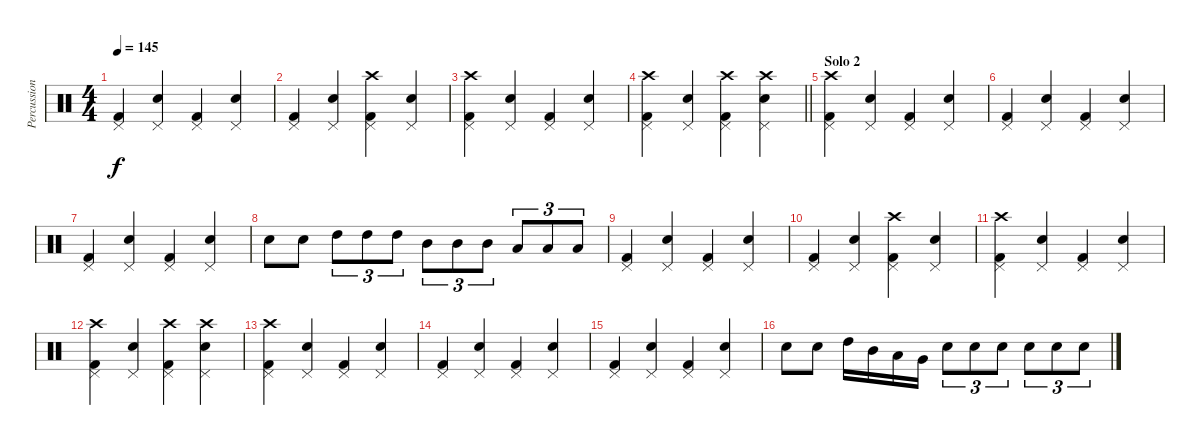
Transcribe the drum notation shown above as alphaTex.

\track ("Percussion" "Percussion") {instrument percussion}
\staff {score}
\articulation defaults
\ts (4 4)
\tempo 145
\clef neutral
\ks c
("Pedal Hi-Hat (hit)" "Kick (hit) 2").4{dy f} ("Pedal Hi-Hat (hit)" "Snare (hit) 2").4 ("Pedal Hi-Hat (hit)" "Kick (hit) 2").4 ("Pedal Hi-Hat (hit)" "Snare (hit) 2").4 |
("Pedal Hi-Hat (hit)" "Kick (hit) 2").4 ("Pedal Hi-Hat (hit)" "Snare (hit) 2").4 ("Pedal Hi-Hat (hit)" "Kick (hit) 2" "Crash high (hit)").4 ("Pedal Hi-Hat (hit)" "Snare (hit) 2").4 |
("Pedal Hi-Hat (hit)" "Kick (hit) 2" "Crash high (hit)").4 ("Pedal Hi-Hat (hit)" "Snare (hit) 2").4 ("Pedal Hi-Hat (hit)" "Kick (hit) 2").4 ("Pedal Hi-Hat (hit)" "Snare (hit) 2").4 |
\barLineRight lightlight
("Pedal Hi-Hat (hit)" "Kick (hit) 2" "Crash high (hit)").4 ("Pedal Hi-Hat (hit)" "Snare (hit) 2").4 ("Pedal Hi-Hat (hit)" "Kick (hit) 2" "Crash high (hit)").4 ("Pedal Hi-Hat (hit)" "Snare (hit) 2" "Crash high (hit)").4 |
\section ("" "Solo 2")
("Pedal Hi-Hat (hit)" "Kick (hit) 2" "Crash high (hit)").4 ("Pedal Hi-Hat (hit)" "Snare (hit) 2").4 ("Pedal Hi-Hat (hit)" "Kick (hit) 2").4 ("Pedal Hi-Hat (hit)" "Snare (hit) 2").4 |
("Pedal Hi-Hat (hit)" "Kick (hit) 2").4 ("Pedal Hi-Hat (hit)" "Snare (hit) 2").4 ("Pedal Hi-Hat (hit)" "Kick (hit) 2").4 ("Pedal Hi-Hat (hit)" "Snare (hit) 2").4 |
("Pedal Hi-Hat (hit)" "Kick (hit) 2").4 ("Pedal Hi-Hat (hit)" "Snare (hit) 2").4 ("Pedal Hi-Hat (hit)" "Kick (hit) 2").4 ("Pedal Hi-Hat (hit)" "Snare (hit) 2").4 |
"Snare (hit) 2".8 "Snare (hit) 2".8 "High Tom (hit)".8{tu (3 2)} "High Tom (hit)".8{tu (3 2)} "High Tom (hit)".8{tu (3 2)} "Mid Tom (hit)".8{tu (3 2)} "Mid Tom (hit)".8{tu (3 2)} "Mid Tom (hit)".8{tu (3 2)} "Low Tom (hit)".8{tu (3 2)} "Low Tom (hit)".8{tu (3 2)} "Low Tom (hit)".8{tu (3 2)} |
("Pedal Hi-Hat (hit)" "Kick (hit) 2").4 ("Pedal Hi-Hat (hit)" "Snare (hit) 2").4 ("Pedal Hi-Hat (hit)" "Kick (hit) 2").4 ("Pedal Hi-Hat (hit)" "Snare (hit) 2").4 |
("Pedal Hi-Hat (hit)" "Kick (hit) 2").4 ("Pedal Hi-Hat (hit)" "Snare (hit) 2").4 ("Pedal Hi-Hat (hit)" "Kick (hit) 2" "Crash high (hit)").4 ("Pedal Hi-Hat (hit)" "Snare (hit) 2").4 |
("Pedal Hi-Hat (hit)" "Kick (hit) 2" "Crash high (hit)").4 ("Pedal Hi-Hat (hit)" "Snare (hit) 2").4 ("Pedal Hi-Hat (hit)" "Kick (hit) 2").4 ("Pedal Hi-Hat (hit)" "Snare (hit) 2").4 |
("Pedal Hi-Hat (hit)" "Kick (hit) 2" "Crash high (hit)").4 ("Pedal Hi-Hat (hit)" "Snare (hit) 2").4 ("Pedal Hi-Hat (hit)" "Kick (hit) 2" "Crash high (hit)").4 ("Pedal Hi-Hat (hit)" "Snare (hit) 2" "Crash high (hit)").4 |
("Pedal Hi-Hat (hit)" "Kick (hit) 2" "Crash high (hit)").4 ("Pedal Hi-Hat (hit)" "Snare (hit) 2").4 ("Pedal Hi-Hat (hit)" "Kick (hit) 2").4 ("Pedal Hi-Hat (hit)" "Snare (hit) 2").4 |
("Pedal Hi-Hat (hit)" "Kick (hit) 2").4 ("Pedal Hi-Hat (hit)" "Snare (hit) 2").4 ("Pedal Hi-Hat (hit)" "Kick (hit) 2").4 ("Pedal Hi-Hat (hit)" "Snare (hit) 2").4 |
("Pedal Hi-Hat (hit)" "Kick (hit) 2").4 ("Pedal Hi-Hat (hit)" "Snare (hit) 2").4 ("Pedal Hi-Hat (hit)" "Kick (hit) 2").4 ("Pedal Hi-Hat (hit)" "Snare (hit) 2").4 |
"Snare (hit) 2".8 "Snare (hit) 2".8 "High Tom (hit)".16 "Mid Tom (hit)".16 "Low Tom (hit)".16 "Very Low Tom (hit)".16 "Snare (hit) 2".8{tu (3 2)} "Snare (hit) 2".8{tu (3 2)} "Snare (hit) 2".8{tu (3 2)} "Snare (hit) 2".8{tu (3 2)} "Snare (hit) 2".8{tu (3 2)} "Snare (hit) 2".8{tu (3 2)}
